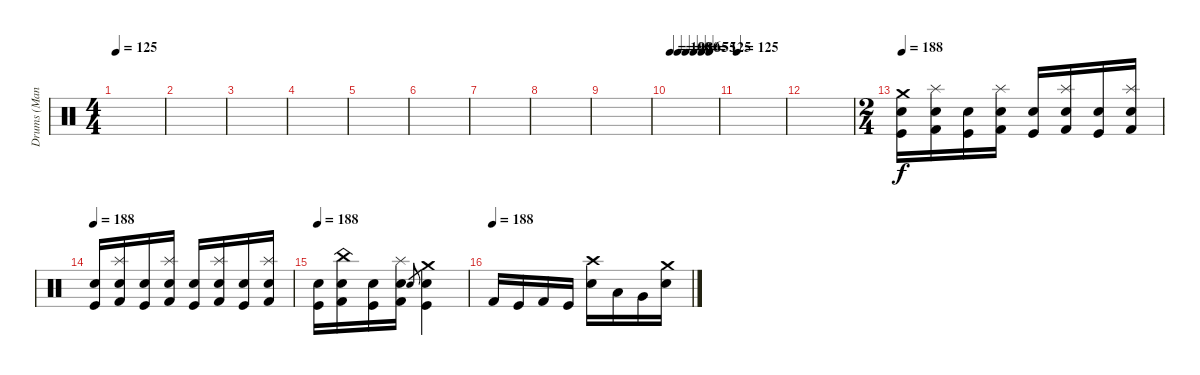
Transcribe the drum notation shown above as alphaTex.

\track ("Drums (Manheim)" "Drums (Man") {instrument percussion}
\staff {score}
\articulation defaults
\ts (4 4)
\tempo 125
\clef neutral
\ks c
|
|
|
|
|
|
|
|
|
\tempo 100
\tempo (90 0.16666666666666666)
\tempo (80 0.3333333333333333)
\tempo (65 0.5)
\tempo (55 0.6666666666666666)
\tempo (125 0.8333333333333334)
|
\tempo 125
|
|
\ts (2 4)
\tempo 188
("Crash medium (hit)" "Electric Snare (hit)" "Kick (hit)").16 ("Splash (hit)" "Electric Snare (hit)" "Kick (hit) 2").16 ("Electric Snare (hit)" "Kick (hit)").16 ("Splash (hit)" "Electric Snare (hit)" "Kick (hit) 2").16 ("Electric Snare (hit)" "Kick (hit)").16 ("Splash (hit)" "Electric Snare (hit)" "Kick (hit) 2").16 ("Electric Snare (hit)" "Kick (hit)").16 ("Splash (hit)" "Electric Snare (hit)" "Kick (hit) 2").16 |
\tempo 188
("Electric Snare (hit)" "Kick (hit)").16 ("Splash (hit)" "Electric Snare (hit)" "Kick (hit) 2").16 ("Electric Snare (hit)" "Kick (hit)").16 ("Splash (hit)" "Electric Snare (hit)" "Kick (hit) 2").16 ("Electric Snare (hit)" "Kick (hit)").16 ("Splash (hit)" "Electric Snare (hit)" "Kick (hit) 2").16 ("Electric Snare (hit)" "Kick (hit)").16 ("Splash (hit)" "Electric Snare (hit)" "Kick (hit) 2").16 |
\tempo 188
("Electric Snare (hit)" "Kick (hit)").16 ("China (hit)" "Electric Snare (hit)" "Kick (hit) 2").16 ("Electric Snare (hit)" "Kick (hit)").16 ("Splash (hit)" "Electric Snare (hit)" "Kick (hit) 2").16 "Electric Snare (hit)".8{gr} ("Crash medium (hit)" "Electric Snare (hit)" "Kick (hit)").4 |
\tempo (188)
"Kick (hit) 2".16 "Kick (hit)".16 "Kick (hit) 2".16 "Kick (hit)".16 ("Crash high (hit)" "Electric Snare (hit)").16 "Low Tom (hit)".16 "Very Low Tom (hit)".16 ("Crash medium (hit)" "Electric Snare (hit)").16
